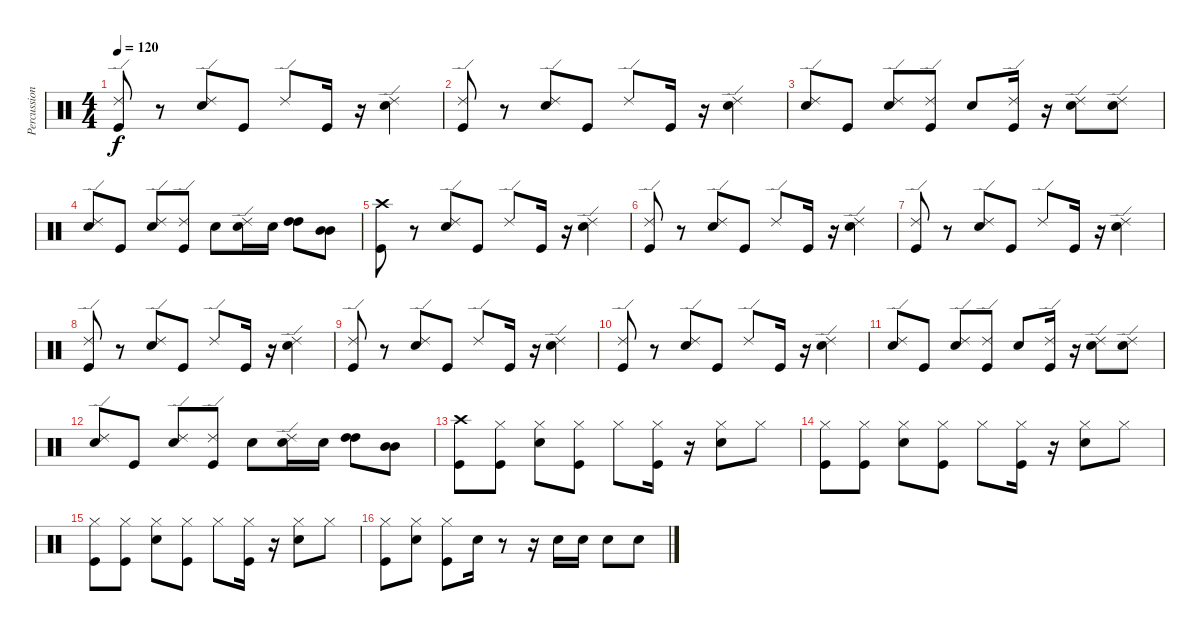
\track ("Percussion" "Percussion") {instrument percussion}
\staff {score}
\articulation defaults
\ts (4 4)
\tempo 120
\clef neutral
\ks c
("Ride (edge) 2" "Kick (hit)").8{dy f} r.8 ("Ride (edge) 2" "Electric Snare (hit)").8 "Kick (hit)".8 "Ride (edge) 2".8 "Kick (hit)".16 r.16 ("Ride (edge) 2" "Electric Snare (hit)").4 |
("Ride (edge) 2" "Kick (hit)").8 r.8 ("Ride (edge) 2" "Electric Snare (hit)").8 "Kick (hit)".8 "Ride (edge) 2".8 "Kick (hit)".16 r.16 ("Ride (edge) 2" "Electric Snare (hit)").4 |
("Ride (edge) 2" "Electric Snare (hit)").8 "Kick (hit)".8 ("Ride (edge) 2" "Electric Snare (hit)").8 ("Ride (edge) 2" "Kick (hit)").8 "Electric Snare (hit)".8 ("Ride (edge) 2" "Kick (hit)").16 r.16 ("Ride (edge) 2" "Electric Snare (hit)").8 ("Ride (edge) 2" "Electric Snare (hit)").8 |
("Ride (edge) 2" "Electric Snare (hit)").8 "Kick (hit)".8 ("Ride (edge) 2" "Electric Snare (hit)").8 ("Ride (edge) 2" "Kick (hit)").8 "Electric Snare (hit)".8 ("Ride (edge) 2" "Electric Snare (hit)").16 "Electric Snare (hit)".16 ("High Tom (hit)" "High Tom (hit)").8 ("Mid Tom (hit)" "Mid Tom (hit)").8 |
("Crash high (hit)" "Kick (hit)").8 r.8 ("Ride (edge) 2" "Electric Snare (hit)").8 "Kick (hit)".8 "Ride (edge) 2".8 "Kick (hit)".16 r.16 ("Ride (edge) 2" "Electric Snare (hit)").4 |
("Ride (edge) 2" "Kick (hit)").8 r.8 ("Ride (edge) 2" "Electric Snare (hit)").8 "Kick (hit)".8 "Ride (edge) 2".8 "Kick (hit)".16 r.16 ("Ride (edge) 2" "Electric Snare (hit)").4 |
("Ride (edge) 2" "Kick (hit)").8 r.8 ("Ride (edge) 2" "Electric Snare (hit)").8 "Kick (hit)".8 "Ride (edge) 2".8 "Kick (hit)".16 r.16 ("Ride (edge) 2" "Electric Snare (hit)").4 |
("Ride (edge) 2" "Kick (hit)").8 r.8 ("Ride (edge) 2" "Electric Snare (hit)").8 "Kick (hit)".8 "Ride (edge) 2".8 "Kick (hit)".16 r.16 ("Ride (edge) 2" "Electric Snare (hit)").4 |
("Ride (edge) 2" "Kick (hit)").8 r.8 ("Ride (edge) 2" "Electric Snare (hit)").8 "Kick (hit)".8 "Ride (edge) 2".8 "Kick (hit)".16 r.16 ("Ride (edge) 2" "Electric Snare (hit)").4 |
("Ride (edge) 2" "Kick (hit)").8 r.8 ("Ride (edge) 2" "Electric Snare (hit)").8 "Kick (hit)".8 "Ride (edge) 2".8 "Kick (hit)".16 r.16 ("Ride (edge) 2" "Electric Snare (hit)").4 |
("Ride (edge) 2" "Electric Snare (hit)").8 "Kick (hit)".8 ("Ride (edge) 2" "Electric Snare (hit)").8 ("Ride (edge) 2" "Kick (hit)").8 "Electric Snare (hit)".8 ("Ride (edge) 2" "Kick (hit)").16 r.16 ("Ride (edge) 2" "Electric Snare (hit)").8 ("Ride (edge) 2" "Electric Snare (hit)").8 |
("Ride (edge) 2" "Electric Snare (hit)").8 "Kick (hit)".8 ("Ride (edge) 2" "Electric Snare (hit)").8 ("Ride (edge) 2" "Kick (hit)").8 "Electric Snare (hit)".8 ("Ride (edge) 2" "Electric Snare (hit)").16 "Electric Snare (hit)".16 ("High Tom (hit)" "High Tom (hit)").8 ("Mid Tom (hit)" "Mid Tom (hit)").8 |
("Crash high (hit)" "Kick (hit)").8 ("Hi-Hat (closed)" "Kick (hit)").8 ("Hi-Hat (closed)" "Electric Snare (hit)").8 ("Hi-Hat (closed)" "Kick (hit)").8 "Hi-Hat (closed)".8 ("Hi-Hat (closed)" "Kick (hit)").16 r.16 ("Hi-Hat (closed)" "Electric Snare (hit)").8 "Hi-Hat (closed)".8 |
("Hi-Hat (closed)" "Kick (hit)").8 ("Hi-Hat (closed)" "Kick (hit)").8 ("Hi-Hat (closed)" "Electric Snare (hit)").8 ("Hi-Hat (closed)" "Kick (hit)").8 "Hi-Hat (closed)".8 ("Hi-Hat (closed)" "Kick (hit)").16 r.16 ("Hi-Hat (closed)" "Electric Snare (hit)").8 "Hi-Hat (closed)".8 |
("Hi-Hat (closed)" "Kick (hit)").8 ("Hi-Hat (closed)" "Kick (hit)").8 ("Hi-Hat (closed)" "Electric Snare (hit)").8 ("Hi-Hat (closed)" "Kick (hit)").8 "Hi-Hat (closed)".8 ("Hi-Hat (closed)" "Kick (hit)").16 r.16 ("Hi-Hat (closed)" "Electric Snare (hit)").8 "Hi-Hat (closed)".8 |
("Hi-Hat (closed)" "Kick (hit)").8 ("Hi-Hat (closed)" "Electric Snare (hit)").8 ("Hi-Hat (closed)" "Kick (hit)").8 "Electric Snare (hit)".16 r.8 r.16 "Electric Snare (hit)".16 "Electric Snare (hit)".16 "Electric Snare (hit)".8 "Electric Snare (hit)".8
